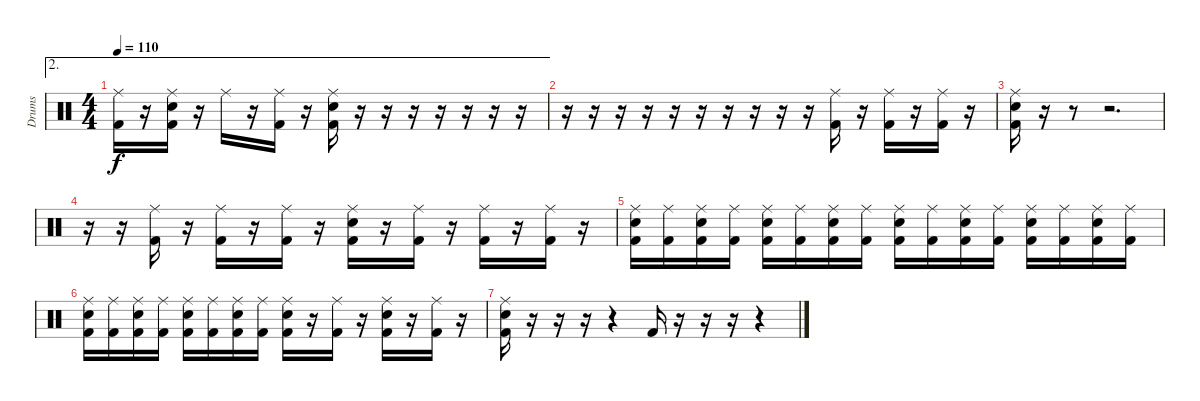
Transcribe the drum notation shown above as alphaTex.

\track ("Drums" "Drums") {instrument percussion}
\staff {score}
\articulation defaults
\ae 2
\ts (4 4)
\tempo 110
\clef neutral
\ks c
("Ride (middle)" "Kick (hit) 2").16{dy f} r.16 ("Ride (middle)" "Electric Snare (hit)" "Kick (hit) 2").16 r.16 "Ride (middle)".16 r.16 ("Ride (middle)" "Kick (hit) 2").16 r.16 ("Ride (middle)" "Electric Snare (hit)" "Kick (hit) 2").16 r.16 r.16 r.16 r.16 r.16 r.16 r.16 |
r.16 r.16 r.16 r.16 r.16 r.16 r.16 r.16 r.16 r.16 ("Ride (middle)" "Kick (hit) 2").16 r.16 ("Ride (middle)" "Kick (hit) 2").16 r.16 ("Ride (middle)" "Kick (hit) 2").16 r.16 |
("Ride (middle)" "Electric Snare (hit)" "Kick (hit) 2").16 r.16 r.8 r.2{d} |
r.16 r.16 ("Ride (middle)" "Kick (hit) 2").16 r.16 ("Ride (middle)" "Kick (hit) 2").16 r.16 ("Ride (middle)" "Kick (hit) 2").16 r.16 ("Ride (middle)" "Electric Snare (hit)" "Kick (hit) 2").16 r.16 ("Ride (middle)" "Kick (hit) 2").16 r.16 ("Ride (middle)" "Kick (hit) 2").16 r.16 ("Ride (middle)" "Kick (hit) 2").16 r.16 |
("Ride (middle)" "Electric Snare (hit)" "Kick (hit) 2").16 ("Ride (middle)" "Kick (hit) 2").16 ("Ride (middle)" "Electric Snare (hit)" "Kick (hit) 2").16 ("Ride (middle)" "Kick (hit) 2").16 ("Ride (middle)" "Electric Snare (hit)" "Kick (hit) 2").16 ("Ride (middle)" "Kick (hit) 2").16 ("Ride (middle)" "Electric Snare (hit)" "Kick (hit) 2").16 ("Ride (middle)" "Kick (hit) 2").16 ("Ride (middle)" "Electric Snare (hit)" "Kick (hit) 2").16 ("Ride (middle)" "Kick (hit) 2").16 ("Ride (middle)" "Electric Snare (hit)" "Kick (hit) 2").16 ("Ride (middle)" "Kick (hit) 2").16 ("Ride (middle)" "Electric Snare (hit)" "Kick (hit) 2").16 ("Ride (middle)" "Kick (hit) 2").16 ("Ride (middle)" "Electric Snare (hit)" "Kick (hit) 2").16 ("Ride (middle)" "Kick (hit) 2").16 |
("Ride (middle)" "Electric Snare (hit)" "Kick (hit) 2").16 ("Ride (middle)" "Kick (hit) 2").16 ("Ride (middle)" "Electric Snare (hit)" "Kick (hit) 2").16 ("Ride (middle)" "Kick (hit) 2").16 ("Ride (middle)" "Electric Snare (hit)" "Kick (hit) 2").16 ("Ride (middle)" "Kick (hit) 2").16 ("Ride (middle)" "Electric Snare (hit)" "Kick (hit) 2").16 ("Ride (middle)" "Kick (hit) 2").16 ("Ride (middle)" "Electric Snare (hit)" "Kick (hit) 2").16 r.16 ("Ride (middle)" "Kick (hit) 2").16 r.16 ("Ride (middle)" "Electric Snare (hit)" "Kick (hit) 2").16 r.16 ("Ride (middle)" "Kick (hit) 2").16 r.16 |
("Ride (middle)" "Electric Snare (hit)" "Kick (hit) 2").16 r.16 r.16 r.16 r.4 "Kick (hit) 2".16 r.16 r.16 r.16 r.4
